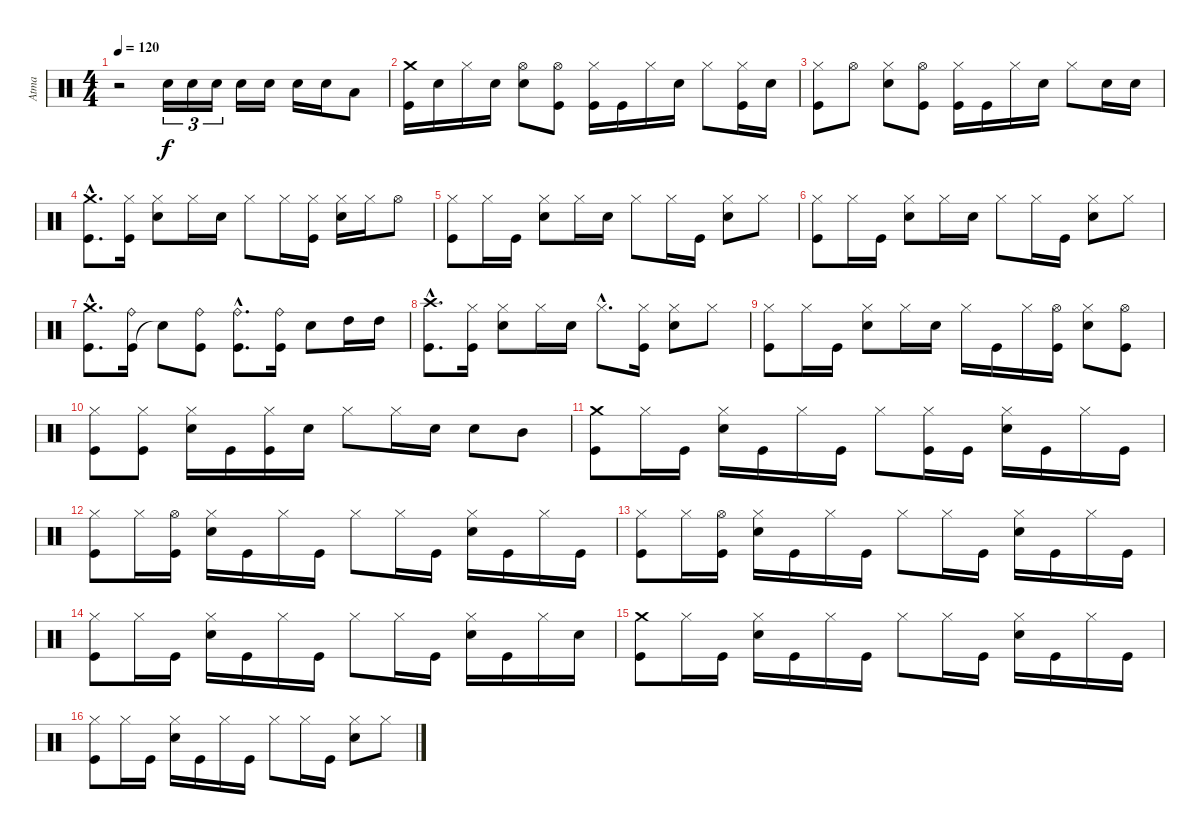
\track ("Atma" "Atma") {instrument percussion}
\staff {score}
\articulation defaults
\ts (4 4)
\tempo 120
\clef neutral
\ks c
r.2{dy f} "Snare (hit) 2".16{tu (3 2)} "Snare (hit) 2".16{tu (3 2)} "Snare (hit) 2".16{tu (3 2)} "Snare (hit) 2".16 "Snare (hit) 2".16 "Snare (hit) 2".16 "Snare (hit) 2".16 "Low Tom (hit)".8 |
("Kick (hit)" "Crash medium (hit)").16 "Snare (hit) 2".16 "Hi-Hat (closed)".16 "Snare (hit) 2".16 ("Snare (hit) 2" "Hi-Hat (open)").8 ("Kick (hit)" "Hi-Hat (open)").8 ("Kick (hit)" "Hi-Hat (closed)").16 "Kick (hit)".16 "Hi-Hat (closed)".16 "Snare (hit) 2".16 "Hi-Hat (closed)".8 ("Kick (hit)" "Hi-Hat (closed)").16 "Snare (hit) 2".16 |
("Kick (hit)" "Hi-Hat (closed)").8 "Hi-Hat (open)".8 ("Snare (hit) 2" "Hi-Hat (closed)").8 ("Kick (hit)" "Hi-Hat (open)").8 ("Kick (hit)" "Hi-Hat (closed)").16 "Kick (hit)".16 "Hi-Hat (closed)".16 "Snare (hit) 2".16 "Hi-Hat (closed)".8 "Snare (hit) 2".16 "Snare (hit) 2".16 |
("Kick (hit)"{hac} "Crash medium (hit)"{hac}).8{d} ("Kick (hit)" "Hi-Hat (closed)").16 ("Snare (hit) 2" "Hi-Hat (closed)").8 "Hi-Hat (closed)".16 "Snare (hit) 2".16 "Hi-Hat (closed)".8 "Hi-Hat (closed)".16 ("Kick (hit)" "Hi-Hat (closed)").16 ("Snare (hit) 2" "Hi-Hat (closed)").16 "Hi-Hat (closed)".16 "Hi-Hat (open)".8 |
("Kick (hit)" "Hi-Hat (closed)").8 "Hi-Hat (closed)".16 "Kick (hit)".16 ("Snare (hit) 2" "Hi-Hat (closed)").8 "Hi-Hat (closed)".16 "Snare (hit) 2".16 "Hi-Hat (closed)".8 "Hi-Hat (closed)".16 "Kick (hit)".16 ("Snare (hit) 2" "Hi-Hat (closed)").8 "Hi-Hat (closed)".8 |
("Kick (hit)" "Hi-Hat (closed)").8 "Hi-Hat (closed)".16 "Kick (hit)".16 ("Snare (hit) 2" "Hi-Hat (closed)").8 "Hi-Hat (closed)".16 "Snare (hit) 2".16 "Hi-Hat (closed)".8 "Hi-Hat (closed)".16 "Kick (hit)".16 ("Snare (hit) 2" "Hi-Hat (closed)").8 "Hi-Hat (closed)".8 |
("Kick (hit)"{hac} "Crash medium (hit)"{hac}).8{d} ("Kick (hit)" "Ride (bell)").16 "Snare (hit)"{t}.8 ("Kick (hit)" "Ride (bell)").8 ("Kick (hit)"{hac} "Ride (bell)"{hac}).8{d} ("Kick (hit)" "Ride (bell)").16 "Snare (hit) 2".8 "High Tom (hit)".16 "High Tom (hit)".16 |
("Kick (hit)"{hac} "Crash high (hit)"{hac}).8{d} ("Kick (hit)" "Hi-Hat (closed)").16 ("Snare (hit) 2" "Hi-Hat (closed)").8 "Hi-Hat (closed)".16 "Snare (hit) 2".16 "Hi-Hat (closed)"{hac}.8{d} ("Kick (hit)" "Hi-Hat (closed)").16 ("Snare (hit) 2" "Hi-Hat (closed)").8 "Hi-Hat (closed)".8 |
("Kick (hit)" "Hi-Hat (closed)").8 "Hi-Hat (closed)".16 "Kick (hit)".16 ("Snare (hit) 2" "Hi-Hat (closed)").8 "Hi-Hat (closed)".16 "Snare (hit) 2".16 "Hi-Hat (closed)".16 "Kick (hit)".16 "Hi-Hat (closed)".16 ("Kick (hit)" "Hi-Hat (open)").16 ("Snare (hit) 2" "Hi-Hat (closed)").8 ("Kick (hit)" "Hi-Hat (open)").8 |
("Kick (hit)" "Hi-Hat (closed)").8 ("Kick (hit)" "Hi-Hat (closed)").8 ("Snare (hit) 2" "Hi-Hat (closed)").16 "Kick (hit)".16 ("Kick (hit)" "Hi-Hat (closed)").16 "Snare (hit) 2".16 "Hi-Hat (closed)".8 "Hi-Hat (closed)".16 "Snare (hit) 2".16 "Snare (hit) 2".8 "Mid Tom (hit)".8 |
("Kick (hit)" "Crash medium (hit)").8 "Hi-Hat (closed)".16 "Kick (hit)".16 ("Snare (hit) 2" "Hi-Hat (closed)").16 "Kick (hit)".16 "Hi-Hat (closed)".16 "Kick (hit)".16 "Hi-Hat (closed)".8 ("Kick (hit)" "Hi-Hat (closed)").16 "Kick (hit)".16 ("Snare (hit) 2" "Hi-Hat (closed)").16 "Kick (hit)".16 "Hi-Hat (closed)".16 "Kick (hit)".16 |
("Kick (hit)" "Hi-Hat (closed)").8 "Hi-Hat (closed)".16 ("Kick (hit)" "Hi-Hat (open)").16 ("Snare (hit) 2" "Hi-Hat (closed)").16 "Kick (hit)".16 "Hi-Hat (closed)".16 "Kick (hit)".16 "Hi-Hat (closed)".8 "Hi-Hat (closed)".16 "Kick (hit)".16 ("Snare (hit) 2" "Hi-Hat (closed)").16 "Kick (hit)".16 "Hi-Hat (closed)".16 "Kick (hit)".16 |
("Kick (hit)" "Hi-Hat (closed)").8 "Hi-Hat (closed)".16 ("Kick (hit)" "Hi-Hat (open)").16 ("Snare (hit) 2" "Hi-Hat (closed)").16 "Kick (hit)".16 "Hi-Hat (closed)".16 "Kick (hit)".16 "Hi-Hat (closed)".8 "Hi-Hat (closed)".16 "Kick (hit)".16 ("Snare (hit) 2" "Hi-Hat (closed)").16 "Kick (hit)".16 "Hi-Hat (closed)".16 "Kick (hit)".16 |
("Kick (hit)" "Hi-Hat (closed)").8 "Hi-Hat (closed)".16 "Kick (hit)".16 ("Snare (hit) 2" "Hi-Hat (closed)").16 "Kick (hit)".16 "Hi-Hat (closed)".16 "Kick (hit)".16 "Hi-Hat (closed)".8 "Hi-Hat (closed)".16 "Kick (hit)".16 ("Snare (hit) 2" "Hi-Hat (closed)").16 "Kick (hit)".16 "Hi-Hat (closed)".16 "Snare (hit) 2".16 |
("Kick (hit)" "Crash medium (hit)").8 "Hi-Hat (closed)".16 "Kick (hit)".16 ("Snare (hit) 2" "Hi-Hat (closed)").16 "Kick (hit)".16 "Hi-Hat (closed)".16 "Kick (hit)".16 "Hi-Hat (closed)".8 "Hi-Hat (closed)".16 "Kick (hit)".16 ("Snare (hit) 2" "Hi-Hat (closed)").16 "Kick (hit)".16 "Hi-Hat (closed)".16 "Kick (hit)".16 |
("Kick (hit)" "Hi-Hat (closed)").8 "Hi-Hat (closed)".16 "Kick (hit)".16 ("Snare (hit) 2" "Hi-Hat (closed)").16 "Kick (hit)".16 "Hi-Hat (closed)".16 "Kick (hit)".16 "Hi-Hat (closed)".8 "Hi-Hat (closed)".16 "Kick (hit)".16 ("Snare (hit) 2" "Hi-Hat (closed)").8 "Hi-Hat (closed)".8
